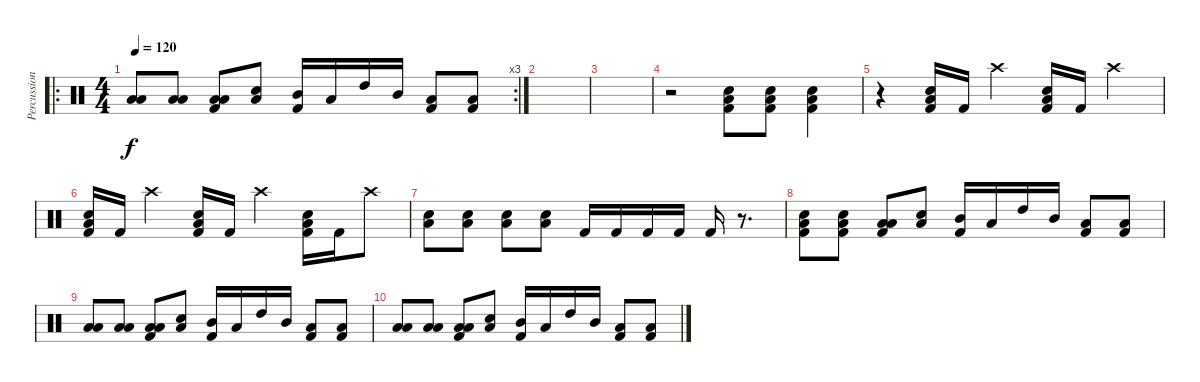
\track ("Percussions" "Percussion") {instrument percussion}
\staff {score}
\articulation defaults
\ro
\rc 3
\ts (4 4)
\tempo 120
\clef neutral
\ks c
("Low Tom (hit)" "Low Tom (hit)").8{dy f} ("Low Tom (hit)" "Low Tom (hit)").8 ("Low Tom (hit)" "Low Tom (hit)" "Kick (hit) 2").8 ("Low Tom (hit)" "Snare (hit) 2").8 ("Mid Tom (hit)" "Kick (hit) 2").16 "Low Tom (hit)".16 "High Tom (hit)".16 "Mid Tom (hit)".16 ("Low Tom (hit)" "Kick (hit) 2").8 ("Low Tom (hit)" "Kick (hit) 2").8 |
|
|
r.2 ("Snare (hit) 2" "Low Tom (hit)" "Kick (hit) 2").8 ("Snare (hit) 2" "Low Tom (hit)" "Kick (hit) 2").8 ("Snare (hit) 2" "Low Tom (hit)" "Kick (hit) 2").4 |
r.4 ("Snare (hit) 2" "Low Tom (hit)" "Kick (hit) 2").16 "Kick (hit) 2".16 "Crash high (hit)".4 ("Snare (hit) 2" "Low Tom (hit)" "Kick (hit) 2").16 "Kick (hit) 2".16 "Crash high (hit)".4 |
("Snare (hit) 2" "Low Tom (hit)" "Kick (hit) 2").16 "Kick (hit) 2".16 "Crash high (hit)".4 ("Snare (hit) 2" "Low Tom (hit)" "Kick (hit) 2").16 "Kick (hit) 2".16 "Crash high (hit)".4 ("Snare (hit) 2" "Low Tom (hit)" "Kick (hit) 2").16 "Kick (hit) 2".16 "Crash high (hit)".8 |
("Snare (hit) 2" "Low Tom (hit)").8 ("Snare (hit) 2" "Low Tom (hit)").8 ("Snare (hit) 2" "Low Tom (hit)").8 ("Snare (hit) 2" "Low Tom (hit)").8 "Kick (hit) 2".16 "Kick (hit) 2".16 "Kick (hit) 2".16 "Kick (hit) 2".16 "Kick (hit) 2".16 r.8{d} |
("Snare (hit) 2" "Low Tom (hit)" "Kick (hit) 2").8 ("Snare (hit) 2" "Low Tom (hit)" "Kick (hit) 2").8 ("Low Tom (hit)" "Low Tom (hit)" "Kick (hit) 2").8 ("Low Tom (hit)" "Snare (hit) 2").8 ("Mid Tom (hit)" "Kick (hit) 2").16 "Low Tom (hit)".16 "High Tom (hit)".16 "Mid Tom (hit)".16 ("Low Tom (hit)" "Kick (hit) 2").8 ("Low Tom (hit)" "Kick (hit) 2").8 |
("Low Tom (hit)" "Low Tom (hit)").8 ("Low Tom (hit)" "Low Tom (hit)").8 ("Low Tom (hit)" "Low Tom (hit)" "Kick (hit) 2").8 ("Low Tom (hit)" "Snare (hit) 2").8 ("Mid Tom (hit)" "Kick (hit) 2").16 "Low Tom (hit)".16 "High Tom (hit)".16 "Mid Tom (hit)".16 ("Low Tom (hit)" "Kick (hit) 2").8 ("Low Tom (hit)" "Kick (hit) 2").8 |
("Low Tom (hit)" "Low Tom (hit)").8 ("Low Tom (hit)" "Low Tom (hit)").8 ("Low Tom (hit)" "Low Tom (hit)" "Kick (hit) 2").8 ("Low Tom (hit)" "Snare (hit) 2").8 ("Mid Tom (hit)" "Kick (hit) 2").16 "Low Tom (hit)".16 "High Tom (hit)".16 "Mid Tom (hit)".16 ("Low Tom (hit)" "Kick (hit) 2").8 ("Low Tom (hit)" "Kick (hit) 2").8
